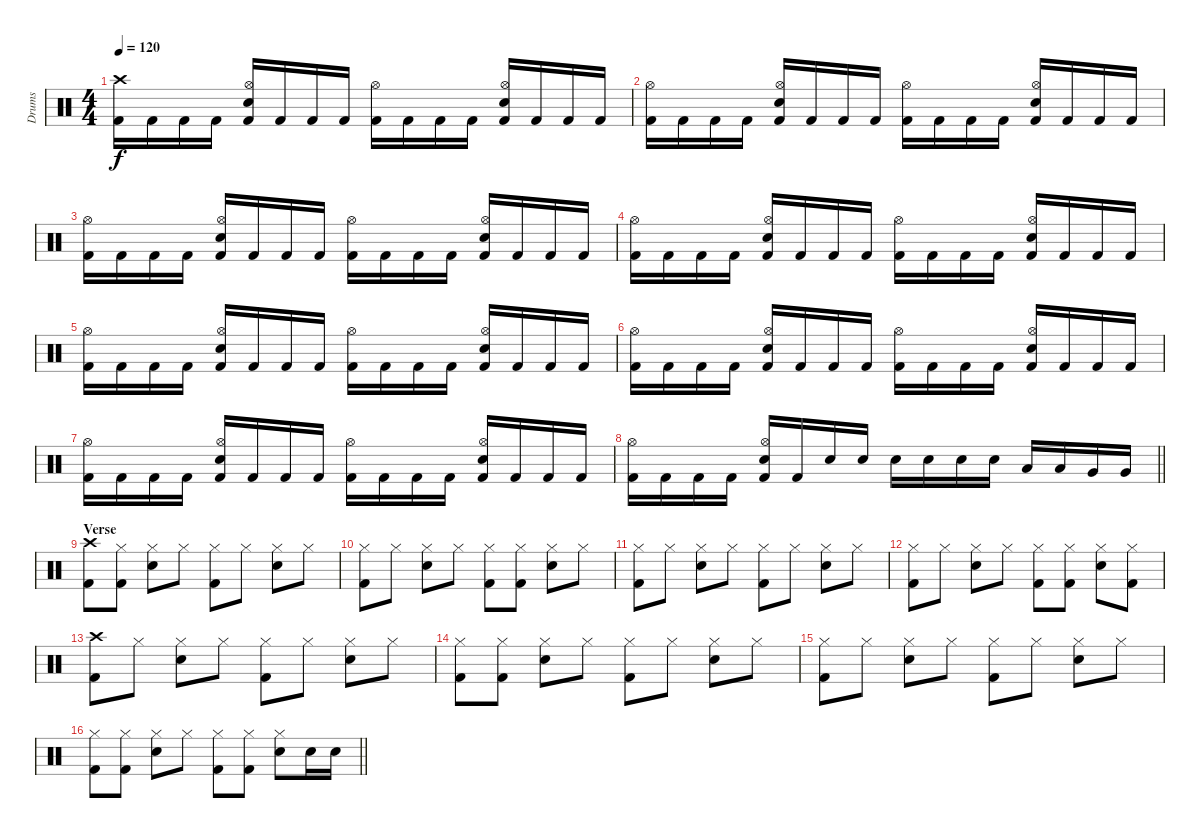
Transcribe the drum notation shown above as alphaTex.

\track ("Drums" "Drums") {instrument percussion}
\staff {score}
\articulation defaults
\ts (4 4)
\tempo 120
\clef neutral
\ks c
("Crash high (hit)" "Kick (hit) 2").16{dy f} "Kick (hit) 2".16 "Kick (hit) 2".16 "Kick (hit) 2".16 ("Hi-Hat (open)" "Electric Snare (hit)" "Kick (hit) 2").16 "Kick (hit) 2".16 "Kick (hit) 2".16 "Kick (hit) 2".16 ("Hi-Hat (open)" "Kick (hit) 2").16 "Kick (hit) 2".16 "Kick (hit) 2".16 "Kick (hit) 2".16 ("Hi-Hat (open)" "Electric Snare (hit)" "Kick (hit) 2").16 "Kick (hit) 2".16 "Kick (hit) 2".16 "Kick (hit) 2".16 |
("Hi-Hat (open)" "Kick (hit) 2").16 "Kick (hit) 2".16 "Kick (hit) 2".16 "Kick (hit) 2".16 ("Hi-Hat (open)" "Electric Snare (hit)" "Kick (hit) 2").16 "Kick (hit) 2".16 "Kick (hit) 2".16 "Kick (hit) 2".16 ("Hi-Hat (open)" "Kick (hit) 2").16 "Kick (hit) 2".16 "Kick (hit) 2".16 "Kick (hit) 2".16 ("Hi-Hat (open)" "Electric Snare (hit)" "Kick (hit) 2").16 "Kick (hit) 2".16 "Kick (hit) 2".16 "Kick (hit) 2".16 |
("Hi-Hat (open)" "Kick (hit) 2").16 "Kick (hit) 2".16 "Kick (hit) 2".16 "Kick (hit) 2".16 ("Hi-Hat (open)" "Electric Snare (hit)" "Kick (hit) 2").16 "Kick (hit) 2".16 "Kick (hit) 2".16 "Kick (hit) 2".16 ("Hi-Hat (open)" "Kick (hit) 2").16 "Kick (hit) 2".16 "Kick (hit) 2".16 "Kick (hit) 2".16 ("Hi-Hat (open)" "Electric Snare (hit)" "Kick (hit) 2").16 "Kick (hit) 2".16 "Kick (hit) 2".16 "Kick (hit) 2".16 |
("Hi-Hat (open)" "Kick (hit) 2").16 "Kick (hit) 2".16 "Kick (hit) 2".16 "Kick (hit) 2".16 ("Hi-Hat (open)" "Electric Snare (hit)" "Kick (hit) 2").16 "Kick (hit) 2".16 "Kick (hit) 2".16 "Kick (hit) 2".16 ("Hi-Hat (open)" "Kick (hit) 2").16 "Kick (hit) 2".16 "Kick (hit) 2".16 "Kick (hit) 2".16 ("Hi-Hat (open)" "Electric Snare (hit)" "Kick (hit) 2").16 "Kick (hit) 2".16 "Kick (hit) 2".16 "Kick (hit) 2".16 |
("Hi-Hat (open)" "Kick (hit) 2").16 "Kick (hit) 2".16 "Kick (hit) 2".16 "Kick (hit) 2".16 ("Hi-Hat (open)" "Electric Snare (hit)" "Kick (hit) 2").16 "Kick (hit) 2".16 "Kick (hit) 2".16 "Kick (hit) 2".16 ("Hi-Hat (open)" "Kick (hit) 2").16 "Kick (hit) 2".16 "Kick (hit) 2".16 "Kick (hit) 2".16 ("Hi-Hat (open)" "Electric Snare (hit)" "Kick (hit) 2").16 "Kick (hit) 2".16 "Kick (hit) 2".16 "Kick (hit) 2".16 |
("Hi-Hat (open)" "Kick (hit) 2").16 "Kick (hit) 2".16 "Kick (hit) 2".16 "Kick (hit) 2".16 ("Hi-Hat (open)" "Electric Snare (hit)" "Kick (hit) 2").16 "Kick (hit) 2".16 "Kick (hit) 2".16 "Kick (hit) 2".16 ("Hi-Hat (open)" "Kick (hit) 2").16 "Kick (hit) 2".16 "Kick (hit) 2".16 "Kick (hit) 2".16 ("Hi-Hat (open)" "Electric Snare (hit)" "Kick (hit) 2").16 "Kick (hit) 2".16 "Kick (hit) 2".16 "Kick (hit) 2".16 |
("Hi-Hat (open)" "Kick (hit) 2").16 "Kick (hit) 2".16 "Kick (hit) 2".16 "Kick (hit) 2".16 ("Hi-Hat (open)" "Electric Snare (hit)" "Kick (hit) 2").16 "Kick (hit) 2".16 "Kick (hit) 2".16 "Kick (hit) 2".16 ("Hi-Hat (open)" "Kick (hit) 2").16 "Kick (hit) 2".16 "Kick (hit) 2".16 "Kick (hit) 2".16 ("Hi-Hat (open)" "Electric Snare (hit)" "Kick (hit) 2").16 "Kick (hit) 2".16 "Kick (hit) 2".16 "Kick (hit) 2".16 |
\barLineRight lightlight
("Hi-Hat (open)" "Kick (hit) 2").16 "Kick (hit) 2".16 "Kick (hit) 2".16 "Kick (hit) 2".16 ("Hi-Hat (open)" "Electric Snare (hit)" "Kick (hit) 2").16 "Kick (hit) 2".16 "Electric Snare (hit)".16 "Electric Snare (hit)".16 "Electric Snare (hit)".16 "Electric Snare (hit)".16 "Electric Snare (hit)".16 "Electric Snare (hit)".16 "Low Tom (hit)".16 "Low Tom (hit)".16 "Very Low Tom (hit)".16 "Very Low Tom (hit)".16 |
\section ("" "Verse")
("Crash high (hit)" "Kick (hit) 2").8 ("Hi-Hat (closed)" "Kick (hit) 2").8 ("Hi-Hat (closed)" "Electric Snare (hit)").8 "Hi-Hat (closed)".8 ("Hi-Hat (closed)" "Kick (hit) 2").8 "Hi-Hat (closed)".8 ("Hi-Hat (closed)" "Electric Snare (hit)").8 "Hi-Hat (closed)".8 |
("Hi-Hat (closed)" "Kick (hit) 2").8 "Hi-Hat (closed)".8 ("Hi-Hat (closed)" "Electric Snare (hit)").8 "Hi-Hat (closed)".8 ("Hi-Hat (closed)" "Kick (hit) 2").8 ("Hi-Hat (closed)" "Kick (hit) 2").8 ("Hi-Hat (closed)" "Electric Snare (hit)").8 "Hi-Hat (closed)".8 |
("Hi-Hat (closed)" "Kick (hit) 2").8 "Hi-Hat (closed)".8 ("Hi-Hat (closed)" "Electric Snare (hit)").8 "Hi-Hat (closed)".8 ("Hi-Hat (closed)" "Kick (hit) 2").8 "Hi-Hat (closed)".8 ("Hi-Hat (closed)" "Electric Snare (hit)").8 "Hi-Hat (closed)".8 |
("Hi-Hat (closed)" "Kick (hit) 2").8 "Hi-Hat (closed)".8 ("Hi-Hat (closed)" "Electric Snare (hit)").8 "Hi-Hat (closed)".8 ("Hi-Hat (closed)" "Kick (hit) 2").8 ("Hi-Hat (closed)" "Kick (hit) 2").8 ("Hi-Hat (closed)" "Electric Snare (hit)").8 ("Hi-Hat (closed)" "Kick (hit) 2").8 |
("Crash high (hit)" "Kick (hit) 2").8 "Hi-Hat (closed)".8 ("Hi-Hat (closed)" "Electric Snare (hit)").8 "Hi-Hat (closed)".8 ("Hi-Hat (closed)" "Kick (hit) 2").8 "Hi-Hat (closed)".8 ("Hi-Hat (closed)" "Electric Snare (hit)").8 "Hi-Hat (closed)".8 |
("Hi-Hat (closed)" "Kick (hit) 2").8 ("Hi-Hat (closed)" "Kick (hit) 2").8 ("Hi-Hat (closed)" "Electric Snare (hit)").8 "Hi-Hat (closed)".8 ("Hi-Hat (closed)" "Kick (hit) 2").8 "Hi-Hat (closed)".8 ("Hi-Hat (closed)" "Electric Snare (hit)").8 "Hi-Hat (closed)".8 |
("Hi-Hat (closed)" "Kick (hit) 2").8 "Hi-Hat (closed)".8 ("Hi-Hat (closed)" "Electric Snare (hit)").8 "Hi-Hat (closed)".8 ("Hi-Hat (closed)" "Kick (hit) 2").8 "Hi-Hat (closed)".8 ("Hi-Hat (closed)" "Electric Snare (hit)").8 "Hi-Hat (closed)".8 |
\barLineRight lightlight
("Hi-Hat (closed)" "Kick (hit) 2").8 ("Hi-Hat (closed)" "Kick (hit) 2").8 ("Hi-Hat (closed)" "Electric Snare (hit)").8 "Hi-Hat (closed)".8 ("Hi-Hat (closed)" "Kick (hit) 2").8 ("Hi-Hat (closed)" "Kick (hit) 2").8 ("Hi-Hat (closed)" "Electric Snare (hit)").8 "Electric Snare (hit)".16 "Electric Snare (hit)".16
